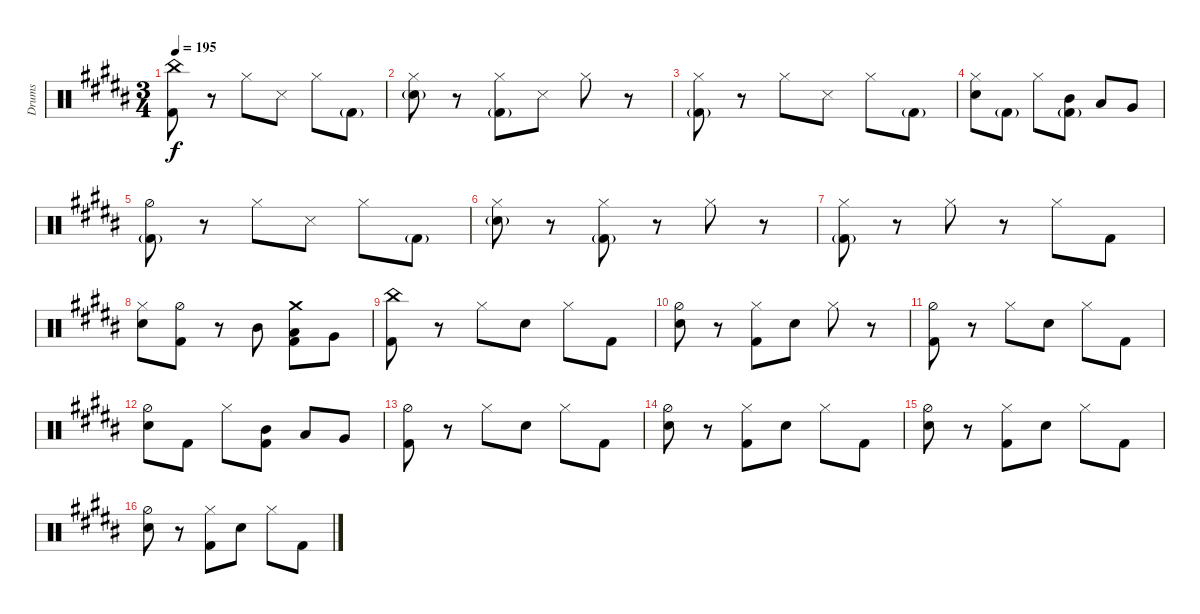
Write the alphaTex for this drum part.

\bracketExtendMode groupsimilarinstruments
\otherSystemsTrackNameOrientation horizontal
\track ("Drumkit" "Drums") {instrument percussion}
\staff {score}
\articulation defaults
\ts (3 4)
\tempo 195
\clef neutral
\ks b
("Kick (hit) 2"{acc bb} "China (hit)"{acc bb}).8{dy f beam Down} r.8{beam Down} "Hi-Hat (closed)"{acc bb}.8{beam Down} "Snare (side stick) 3"{acc bb}.8{beam Down} "Hi-Hat (closed)"{acc bb}.8{beam Down} "Kick (hit) 2"{g acc bb}.8{beam Down} |
("Snare (hit) 2"{g acc bb} "Hi-Hat (closed)"{acc bb}).8{beam Down} r.8{beam Down} ("Kick (hit) 2"{g acc bb} "Hi-Hat (closed)"{acc bb}).8{beam Down} "Snare (side stick) 3"{acc bb}.8{beam Down} "Hi-Hat (closed)"{acc bb}.8{beam Down} r.8{beam Down} |
("Kick (hit) 2"{g acc bb} "Hi-Hat (closed)"{acc bb}).8{beam Down} r.8{beam Down} "Hi-Hat (closed)"{acc bb}.8{beam Down} "Snare (side stick) 3"{acc bb}.8{beam Down} "Hi-Hat (closed)"{acc bb}.8{beam Down} "Kick (hit) 2"{g acc bb}.8{beam Down} |
("Snare (hit) 2"{acc bb} "Hi-Hat (closed)"{acc bb}).8{beam Down} "Kick (hit) 2"{g acc bb}.8{beam Down} "Hi-Hat (closed)"{acc bb}.8{beam Down} ("Mid Tom (hit)"{acc bb} "Kick (hit) 2"{g acc bb}).8{beam Down} "Low Tom (hit)"{acc bb}.8{beam Up} "Very Low Tom (hit)"{acc bb}.8{beam Up} |
("Kick (hit) 2"{g acc bb} "Hi-Hat (half)"{acc bb}).8{beam Down} r.8{beam Down} "Hi-Hat (closed)"{acc bb}.8{beam Down} "Snare (side stick) 3"{acc bb}.8{beam Down} "Hi-Hat (closed)"{acc bb}.8{beam Down} "Kick (hit) 2"{g acc bb}.8{beam Down} |
("Snare (hit) 2"{g acc bb} "Hi-Hat (closed)"{acc bb}).8{beam Down} r.8{beam Down} ("Kick (hit) 2"{g acc bb} "Hi-Hat (closed)"{acc bb}).8{beam Down} r.8{beam Down} "Hi-Hat (closed)"{acc bb}.8{beam Down} r.8{beam Down} |
("Kick (hit) 2"{g acc bb} "Hi-Hat (closed)"{acc bb}).8{beam Down} r.8{beam Down} "Hi-Hat (closed)"{acc bb}.8{beam Down} r.8{beam Down} "Hi-Hat (closed)"{acc bb}.8{beam Down} "Kick (hit) 2"{acc bb}.8{beam Down} |
("Snare (hit) 2"{acc bb} "Hi-Hat (closed)"{acc bb}).8{beam Down} ("Kick (hit) 2"{acc bb} "Hi-Hat (half)"{acc bb}).8{beam Down} r.8{beam Down} "Mid Tom (hit)"{acc bb}.8{beam Down} ("Low Tom (hit)"{acc bb} "Crash medium (hit)"{acc bb} "Kick (hit) 2"{acc bb}).8{beam Down} "Very Low Tom (hit)"{acc bb}.8{beam Down} |
("Kick (hit) 2"{acc bb} "China (hit)"{acc bb}).8{beam Down} r.8{beam Down} "Hi-Hat (closed)"{acc bb}.8{beam Down} "Snare (hit) 2"{acc bb}.8{beam Down} "Hi-Hat (closed)"{acc bb}.8{beam Down} "Kick (hit) 2"{acc bb}.8{beam Down} |
("Snare (hit) 2"{acc bb} "Hi-Hat (half)"{acc bb}).8{beam Down} r.8{beam Down} ("Kick (hit) 2"{acc bb} "Hi-Hat (closed)"{acc bb}).8{beam Down} "Snare (hit) 2"{acc bb}.8{beam Down} "Hi-Hat (closed)"{acc bb}.8{beam Down} r.8{beam Down} |
("Kick (hit) 2"{acc bb} "Hi-Hat (half)"{acc bb}).8{beam Down} r.8{beam Down} "Hi-Hat (closed)"{acc bb}.8{beam Down} "Snare (hit) 2"{acc bb}.8{beam Down} "Hi-Hat (closed)"{acc bb}.8{beam Down} "Kick (hit) 2"{acc bb}.8{beam Down} |
("Snare (hit) 2"{acc bb} "Hi-Hat (half)"{acc bb}).8{beam Down} "Kick (hit) 2"{acc bb}.8{beam Down} "Hi-Hat (closed)"{acc bb}.8{beam Down} ("Mid Tom (hit)"{acc bb} "Kick (hit) 2"{acc bb}).8{beam Down} "Low Tom (hit)"{acc bb}.8{beam Up} "Very Low Tom (hit)"{acc bb}.8{beam Up} |
("Kick (hit) 2"{acc bb} "Hi-Hat (half)"{acc bb}).8{beam Down} r.8{beam Down} "Hi-Hat (closed)"{acc bb}.8{beam Down} "Snare (hit) 2"{acc bb}.8{beam Down} "Hi-Hat (closed)"{acc bb}.8{beam Down} "Kick (hit) 2"{acc bb}.8{beam Down} |
("Snare (hit) 2"{acc bb} "Hi-Hat (half)"{acc bb}).8{beam Down} r.8{beam Down} ("Kick (hit) 2"{acc bb} "Hi-Hat (closed)"{acc bb}).8{beam Down} "Snare (hit) 2"{acc bb}.8{beam Down} "Hi-Hat (closed)"{acc bb}.8{beam Down} "Kick (hit) 2"{acc bb}.8{beam Down} |
("Hi-Hat (half)"{acc bb} "Snare (hit) 2"{acc bb}).8{beam Down} r.8{beam Down} ("Hi-Hat (closed)"{acc bb} "Kick (hit) 2"{acc bb}).8{beam Down} "Snare (hit) 2"{acc bb}.8{beam Down} "Hi-Hat (closed)"{acc bb}.8{beam Down} "Kick (hit) 2"{acc bb}.8{beam Down} |
("Snare (hit) 2"{acc bb} "Hi-Hat (half)"{acc bb}).8{beam Down} r.8{beam Down} ("Kick (hit) 2"{acc bb} "Hi-Hat (closed)"{acc bb}).8{beam Down} "Snare (hit) 2"{acc bb}.8{beam Down} "Hi-Hat (closed)"{acc bb}.8{beam Down} "Kick (hit) 2"{acc bb}.8{beam Down}
